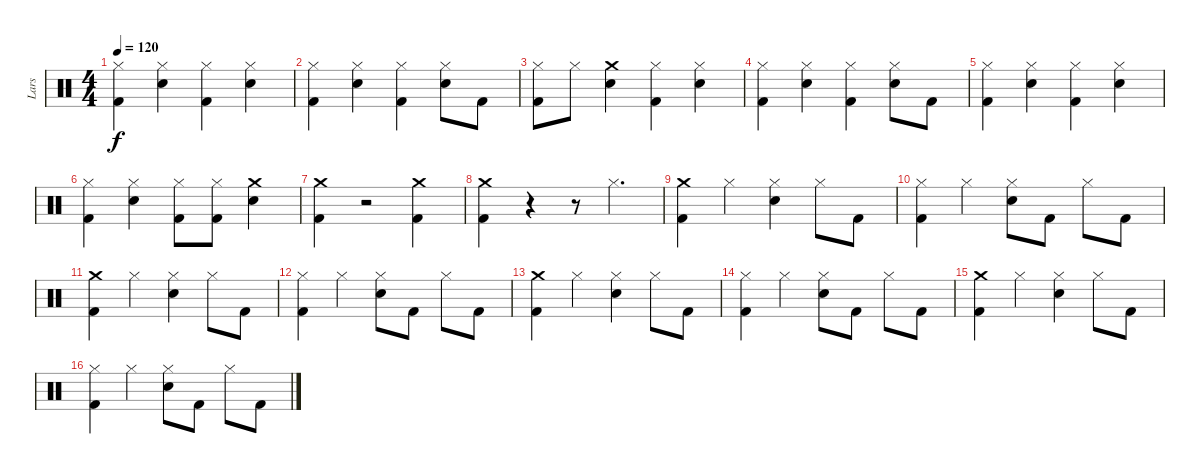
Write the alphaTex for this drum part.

\track ("Lars" "Lars") {instrument percussion}
\staff {score}
\articulation defaults
\ts (4 4)
\tempo 120
\clef neutral
\ks c
("Kick (hit) 2" "Hi-Hat (closed)").4{dy f} ("Hi-Hat (closed)" "Snare (hit) 2").4 ("Hi-Hat (closed)" "Kick (hit) 2").4 ("Hi-Hat (closed)" "Snare (hit) 2").4 |
("Hi-Hat (closed)" "Kick (hit) 2").4 ("Hi-Hat (closed)" "Snare (hit) 2").4 ("Kick (hit) 2" "Hi-Hat (closed)").4 ("Hi-Hat (closed)" "Snare (hit) 2").8 "Kick (hit) 2".8 |
("Kick (hit) 2" "Hi-Hat (closed)").8 "Hi-Hat (closed)".8 ("Crash medium (hit)" "Snare (hit) 2").4 ("Hi-Hat (closed)" "Kick (hit) 2").4 ("Hi-Hat (closed)" "Snare (hit) 2").4 |
("Hi-Hat (closed)" "Kick (hit) 2").4 ("Snare (hit) 2" "Hi-Hat (closed)").4 ("Hi-Hat (closed)" "Kick (hit) 2").4 ("Hi-Hat (closed)" "Snare (hit) 2").8 "Kick (hit) 2".8 |
("Kick (hit) 2" "Hi-Hat (closed)").4 ("Hi-Hat (closed)" "Snare (hit) 2").4 ("Hi-Hat (closed)" "Kick (hit) 2").4 ("Hi-Hat (closed)" "Snare (hit) 2").4 |
("Hi-Hat (closed)" "Kick (hit) 2").4 ("Hi-Hat (closed)" "Snare (hit) 2").4 ("Kick (hit) 2" "Hi-Hat (closed)").8 ("Kick (hit) 2" "Hi-Hat (closed)").8 ("Crash medium (hit)" "Snare (hit) 2").4 |
("Crash medium (hit)" "Kick (hit) 2").4 r.2 ("Kick (hit) 2" "Crash medium (hit)").4 |
("Crash medium (hit)" "Kick (hit) 2").4 r.4 r.8 "Hi-Hat (closed)".4{d} |
("Kick (hit) 2" "Crash medium (hit)").4 "Hi-Hat (closed)".4 ("Snare (hit) 2" "Hi-Hat (closed)").4 "Hi-Hat (closed)".8 "Kick (hit) 2".8 |
("Hi-Hat (closed)" "Kick (hit) 2").4 "Hi-Hat (closed)".4 ("Snare (hit) 2" "Hi-Hat (closed)").8 "Kick (hit) 2".8 "Hi-Hat (closed)".8 "Kick (hit) 2".8 |
("Kick (hit) 2" "Crash medium (hit)").4 "Hi-Hat (closed)".4 ("Snare (hit) 2" "Hi-Hat (closed)").4 "Hi-Hat (closed)".8 "Kick (hit) 2".8 |
("Hi-Hat (closed)" "Kick (hit) 2").4 "Hi-Hat (closed)".4 ("Snare (hit) 2" "Hi-Hat (closed)").8 "Kick (hit) 2".8 "Hi-Hat (closed)".8 "Kick (hit) 2".8 |
("Kick (hit) 2" "Crash medium (hit)").4 "Hi-Hat (closed)".4 ("Snare (hit) 2" "Hi-Hat (closed)").4 "Hi-Hat (closed)".8 "Kick (hit) 2".8 |
("Hi-Hat (closed)" "Kick (hit) 2").4 "Hi-Hat (closed)".4 ("Snare (hit) 2" "Hi-Hat (closed)").8 "Kick (hit) 2".8 "Hi-Hat (closed)".8 "Kick (hit) 2".8 |
("Kick (hit) 2" "Crash medium (hit)").4 "Hi-Hat (closed)".4 ("Snare (hit) 2" "Hi-Hat (closed)").4 "Hi-Hat (closed)".8 "Kick (hit) 2".8 |
("Hi-Hat (closed)" "Kick (hit) 2").4 "Hi-Hat (closed)".4 ("Snare (hit) 2" "Hi-Hat (closed)").8 "Kick (hit) 2".8 "Hi-Hat (closed)".8 "Kick (hit) 2".8
